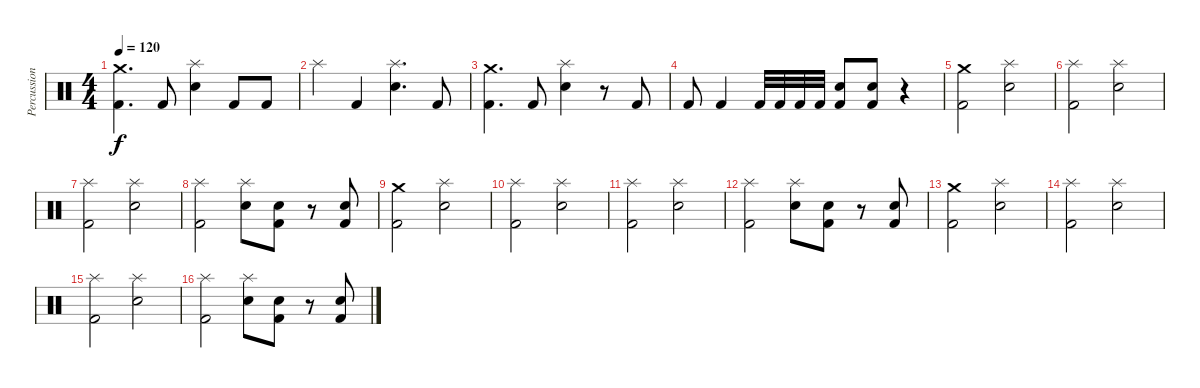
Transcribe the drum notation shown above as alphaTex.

\track ("Percussion" "Percussion") {instrument percussion}
\staff {score}
\articulation defaults
\ts (4 4)
\tempo 120
\clef neutral
\ks c
("Crash medium (hit)" "Kick (hit) 2").4{d dy f} "Kick (hit) 2".8 ("Splash (hit)" "Electric Snare (hit)").4 "Kick (hit) 2".8 "Kick (hit) 2".8 |
"Splash (hit)".4 "Kick (hit) 2".4 ("Splash (hit)" "Electric Snare (hit)").4{d} "Kick (hit) 2".8 |
("Crash medium (hit)" "Kick (hit) 2").4{d} "Kick (hit) 2".8 ("Splash (hit)" "Electric Snare (hit)").4 r.8 "Kick (hit) 2".8 |
"Kick (hit) 2".8 "Kick (hit) 2".4 "Kick (hit) 2".32 "Kick (hit) 2".32 "Kick (hit) 2".32 "Kick (hit) 2".32 ("Electric Snare (hit)" "Kick (hit) 2").8 ("Electric Snare (hit)" "Kick (hit) 2").8 r.4 |
("Crash medium (hit)" "Kick (hit) 2").2 ("Splash (hit)" "Electric Snare (hit)").2 |
("Splash (hit)" "Kick (hit) 2").2 ("Splash (hit)" "Electric Snare (hit)").2 |
("Splash (hit)" "Kick (hit) 2").2 ("Splash (hit)" "Electric Snare (hit)").2 |
("Splash (hit)" "Kick (hit) 2").2 ("Splash (hit)" "Electric Snare (hit)").8 ("Electric Snare (hit)" "Kick (hit) 2").8 r.8 ("Electric Snare (hit)" "Kick (hit) 2").8 |
("Crash medium (hit)" "Kick (hit) 2").2 ("Splash (hit)" "Electric Snare (hit)").2 |
("Splash (hit)" "Kick (hit) 2").2 ("Splash (hit)" "Electric Snare (hit)").2 |
("Splash (hit)" "Kick (hit) 2").2 ("Splash (hit)" "Electric Snare (hit)").2 |
("Splash (hit)" "Kick (hit) 2").2 ("Splash (hit)" "Electric Snare (hit)").8 ("Electric Snare (hit)" "Kick (hit) 2").8 r.8 ("Electric Snare (hit)" "Kick (hit) 2").8 |
("Crash medium (hit)" "Kick (hit) 2").2 ("Splash (hit)" "Electric Snare (hit)").2 |
("Splash (hit)" "Kick (hit) 2").2 ("Splash (hit)" "Electric Snare (hit)").2 |
("Splash (hit)" "Kick (hit) 2").2 ("Splash (hit)" "Electric Snare (hit)").2 |
("Splash (hit)" "Kick (hit) 2").2 ("Splash (hit)" "Electric Snare (hit)").8 ("Electric Snare (hit)" "Kick (hit) 2").8 r.8 ("Electric Snare (hit)" "Kick (hit) 2").8
